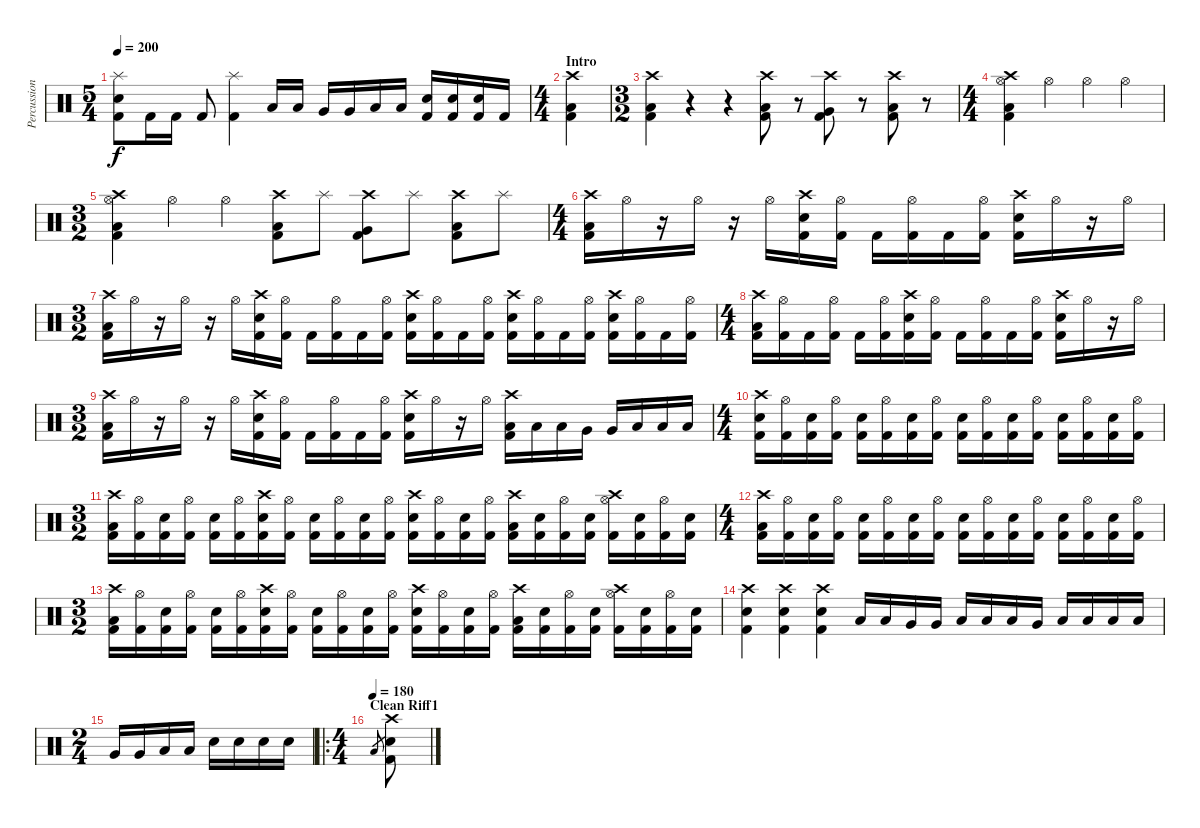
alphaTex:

\track ("Percussion" "Percussion") {instrument percussion}
\staff {score}
\articulation defaults
\ts (5 4)
\tempo 200
\clef neutral
\ks c
("Splash (hit)" "Kick (hit) 2" "Snare (hit) 2").8{dy f} "Kick (hit) 2".16 "Kick (hit) 2".16 "Kick (hit) 2".8 ("Splash (hit)" "Kick (hit) 2").4 "Low Tom (hit)".16 "Low Tom (hit)".16 "Very Low Tom (hit)".16 "Very Low Tom (hit)".16 "Low Floor Tom (hit)".16 "Low Floor Tom (hit)".16 ("Kick (hit) 2" "Electric Snare (hit)").16 ("Kick (hit) 2" "Snare (hit) 2").16 ("Kick (hit) 2" "Snare (hit) 2").16 "Kick (hit) 2".16 |
\ts (4 4)
\section ("" "Intro")
("Low Tom (hit)" "Kick (hit) 2" "Crash high (hit)").4 |
\ts (3 2)
("Low Tom (hit)" "Kick (hit) 2" "Crash high (hit)").4 r.4 r.4 ("Low Tom (hit)" "Kick (hit) 2" "Crash high (hit)").8 r.8 ("Very Low Tom (hit)" "Kick (hit) 2" "Crash high (hit)").8 r.8 ("Low Tom (hit)" "Kick (hit) 2" "Crash high (hit)").8 r.8 |
\ts (4 4)
("Hi-Hat (open)" "Low Tom (hit)" "Kick (hit) 2" "Crash high (hit)").4 "Hi-Hat (open)".4 "Hi-Hat (open)".4 "Hi-Hat (open)".4 |
\ts (3 2)
("Hi-Hat (open)" "Low Tom (hit)" "Kick (hit) 2" "Crash high (hit)").4 "Hi-Hat (open)".4 "Hi-Hat (open)".4 ("Low Tom (hit)" "Kick (hit) 2" "Crash high (hit)").8 "Splash (hit)".8 ("Very Low Tom (hit)" "Kick (hit) 2" "Crash high (hit)").8 "Splash (hit)".8 ("Low Tom (hit)" "Kick (hit) 2" "Crash high (hit)").8 "Splash (hit)".8 |
\ts (4 4)
("Low Tom (hit)" "Kick (hit) 2" "Crash high (hit)").16 "Hi-Hat (open)".16 r.16 "Hi-Hat (open)".16 r.16 "Hi-Hat (open)".16 ("Snare (hit) 2" "Kick (hit) 2" "Crash high (hit)").16 ("Hi-Hat (open)" "Kick (hit) 2").16 "Kick (hit) 2".16 ("Hi-Hat (open)" "Kick (hit) 2").16 "Kick (hit) 2".16 ("Hi-Hat (open)" "Kick (hit) 2").16 ("Snare (hit) 2" "Kick (hit) 2" "Crash high (hit)").16 "Hi-Hat (open)".16 r.16 "Hi-Hat (open)".16 |
\ts (3 2)
("Low Tom (hit)" "Kick (hit) 2" "Crash high (hit)").16 "Hi-Hat (open)".16 r.16 "Hi-Hat (open)".16 r.16 "Hi-Hat (open)".16 ("Snare (hit) 2" "Kick (hit) 2" "Crash high (hit)").16 ("Hi-Hat (open)" "Kick (hit) 2").16 "Kick (hit) 2".16 ("Hi-Hat (open)" "Kick (hit) 2").16 "Kick (hit) 2".16 ("Hi-Hat (open)" "Kick (hit) 2").16 ("Snare (hit) 2" "Kick (hit) 2" "Crash high (hit)").16 ("Hi-Hat (open)" "Kick (hit) 2").16 "Kick (hit) 2".16 ("Hi-Hat (open)" "Kick (hit) 2").16 ("Snare (hit) 2" "Kick (hit) 2" "Crash high (hit)").16 ("Hi-Hat (open)" "Kick (hit) 2").16 "Kick (hit) 2".16 ("Hi-Hat (open)" "Kick (hit) 2").16 ("Snare (hit) 2" "Kick (hit) 2" "Crash high (hit)").16 ("Hi-Hat (open)" "Kick (hit) 2").16 "Kick (hit) 2".16 ("Hi-Hat (open)" "Kick (hit) 2").16 |
\ts (4 4)
("Low Tom (hit)" "Kick (hit) 2" "Crash high (hit)").16 ("Hi-Hat (open)" "Kick (hit) 2").16 "Kick (hit) 2".16 ("Hi-Hat (open)" "Kick (hit) 2").16 "Kick (hit) 2".16 ("Hi-Hat (open)" "Kick (hit) 2").16 ("Snare (hit) 2" "Kick (hit) 2" "Crash high (hit)").16 ("Hi-Hat (open)" "Kick (hit) 2").16 "Kick (hit) 2".16 ("Hi-Hat (open)" "Kick (hit) 2").16 "Kick (hit) 2".16 ("Hi-Hat (open)" "Kick (hit) 2").16 ("Snare (hit) 2" "Kick (hit) 2" "Crash high (hit)").16 "Hi-Hat (open)".16 r.16 "Hi-Hat (open)".16 |
\ts (3 2)
("Low Tom (hit)" "Kick (hit) 2" "Crash high (hit)").16 "Hi-Hat (open)".16 r.16 "Hi-Hat (open)".16 r.16 "Hi-Hat (open)".16 ("Snare (hit) 2" "Kick (hit) 2" "Crash high (hit)").16 ("Hi-Hat (open)" "Kick (hit) 2").16 "Kick (hit) 2".16 ("Hi-Hat (open)" "Kick (hit) 2").16 "Kick (hit) 2".16 ("Hi-Hat (open)" "Kick (hit) 2").16 ("Snare (hit) 2" "Kick (hit) 2" "Crash high (hit)").16 "Hi-Hat (open)".16 r.16 "Hi-Hat (open)".16 ("Low Tom (hit)" "Kick (hit) 2" "Crash high (hit)").16 "Low Tom (hit)".16 "Low Tom (hit)".16 "Very Low Tom (hit)".16 "Very Low Tom (hit)".16 "Low Floor Tom (hit)".16 "Low Floor Tom (hit)".16 "Low Floor Tom (hit)".16 |
\ts (4 4)
("Snare (hit) 2" "Kick (hit) 2" "Crash high (hit)").16 ("Hi-Hat (open)" "Kick (hit) 2").16 ("Snare (hit) 2" "Kick (hit) 2").16 ("Hi-Hat (open)" "Kick (hit) 2").16 ("Snare (hit) 2" "Kick (hit) 2").16 ("Hi-Hat (open)" "Kick (hit) 2").16 ("Snare (hit) 2" "Kick (hit) 2").16 ("Hi-Hat (open)" "Kick (hit) 2").16 ("Snare (hit) 2" "Kick (hit) 2").16 ("Hi-Hat (open)" "Kick (hit) 2").16 ("Snare (hit) 2" "Kick (hit) 2").16 ("Hi-Hat (open)" "Kick (hit) 2").16 ("Snare (hit) 2" "Kick (hit) 2").16 ("Hi-Hat (open)" "Kick (hit) 2").16 ("Snare (hit) 2" "Kick (hit) 2").16 ("Hi-Hat (open)" "Kick (hit) 2").16 |
\ts (3 2)
("Low Tom (hit)" "Kick (hit) 2" "Crash high (hit)").16 ("Hi-Hat (open)" "Kick (hit) 2").16 ("Snare (hit) 2" "Kick (hit) 2").16 ("Hi-Hat (open)" "Kick (hit) 2").16 ("Snare (hit) 2" "Kick (hit) 2").16 ("Hi-Hat (open)" "Kick (hit) 2").16 ("Snare (hit) 2" "Kick (hit) 2" "Crash high (hit)").16 ("Hi-Hat (open)" "Kick (hit) 2").16 ("Snare (hit) 2" "Kick (hit) 2").16 ("Hi-Hat (open)" "Kick (hit) 2").16 ("Snare (hit) 2" "Kick (hit) 2").16 ("Hi-Hat (open)" "Kick (hit) 2").16 ("Snare (hit) 2" "Kick (hit) 2" "Crash high (hit)").16 ("Hi-Hat (open)" "Kick (hit) 2").16 ("Snare (hit) 2" "Kick (hit) 2").16 ("Hi-Hat (open)" "Kick (hit) 2").16 ("Low Tom (hit)" "Kick (hit) 2" "Crash high (hit)").16 ("Snare (hit) 2" "Kick (hit) 2").16 ("Hi-Hat (open)" "Kick (hit) 2").16 ("Snare (hit) 2" "Kick (hit) 2").16 ("Hi-Hat (open)" "Kick (hit) 2" "Crash high (hit)").16 ("Snare (hit) 2" "Kick (hit) 2").16 ("Hi-Hat (open)" "Kick (hit) 2").16 ("Snare (hit) 2" "Kick (hit) 2").16 |
\ts (4 4)
("Low Tom (hit)" "Kick (hit) 2" "Crash high (hit)").16 ("Hi-Hat (open)" "Kick (hit) 2").16 ("Snare (hit) 2" "Kick (hit) 2").16 ("Hi-Hat (open)" "Kick (hit) 2").16 ("Snare (hit) 2" "Kick (hit) 2").16 ("Hi-Hat (open)" "Kick (hit) 2").16 ("Snare (hit) 2" "Kick (hit) 2").16 ("Hi-Hat (open)" "Kick (hit) 2").16 ("Snare (hit) 2" "Kick (hit) 2").16 ("Hi-Hat (open)" "Kick (hit) 2").16 ("Snare (hit) 2" "Kick (hit) 2").16 ("Hi-Hat (open)" "Kick (hit) 2").16 ("Snare (hit) 2" "Kick (hit) 2").16 ("Hi-Hat (open)" "Kick (hit) 2").16 ("Snare (hit) 2" "Kick (hit) 2").16 ("Hi-Hat (open)" "Kick (hit) 2").16 |
\ts (3 2)
("Low Tom (hit)" "Kick (hit) 2" "Crash high (hit)").16 ("Hi-Hat (open)" "Kick (hit) 2").16 ("Snare (hit) 2" "Kick (hit) 2").16 ("Hi-Hat (open)" "Kick (hit) 2").16 ("Snare (hit) 2" "Kick (hit) 2").16 ("Hi-Hat (open)" "Kick (hit) 2").16 ("Snare (hit) 2" "Kick (hit) 2" "Crash high (hit)").16 ("Hi-Hat (open)" "Kick (hit) 2").16 ("Snare (hit) 2" "Kick (hit) 2").16 ("Hi-Hat (open)" "Kick (hit) 2").16 ("Snare (hit) 2" "Kick (hit) 2").16 ("Hi-Hat (open)" "Kick (hit) 2").16 ("Snare (hit) 2" "Kick (hit) 2" "Crash high (hit)").16 ("Hi-Hat (open)" "Kick (hit) 2").16 ("Snare (hit) 2" "Kick (hit) 2").16 ("Hi-Hat (open)" "Kick (hit) 2").16 ("Low Tom (hit)" "Kick (hit) 2" "Crash high (hit)").16 ("Snare (hit) 2" "Kick (hit) 2").16 ("Hi-Hat (open)" "Kick (hit) 2").16 ("Snare (hit) 2" "Kick (hit) 2").16 ("Hi-Hat (open)" "Kick (hit) 2" "Crash high (hit)").16 ("Snare (hit) 2" "Kick (hit) 2").16 ("Hi-Hat (open)" "Kick (hit) 2").16 ("Snare (hit) 2" "Kick (hit) 2").16 |
("Kick (hit) 2" "Snare (hit) 2" "Crash high (hit)").4 ("Kick (hit) 2" "Snare (hit) 2" "Crash high (hit)").4 ("Kick (hit) 2" "Snare (hit) 2" "Crash high (hit)").4 "Low Tom (hit)".16 "Low Tom (hit)".16 "Very Low Tom (hit)".16 "Very Low Tom (hit)".16 "Low Floor Tom (hit)".16 "Low Floor Tom (hit)".16 "Low Tom (hit)".16 "Very Low Tom (hit)".16 "Low Floor Tom (hit)".16 "Low Floor Tom (hit)".16 "Low Floor Tom (hit)".16 "Low Tom (hit)".16 |
\ts (2 4)
"Very Low Tom (hit)".16 "Very Low Tom (hit)".16 "Low Floor Tom (hit)".16 "Low Floor Tom (hit)".16 "Electric Snare (hit)".16 "Electric Snare (hit)".16 "Snare (hit) 2".16 "Snare (hit) 2".16 |
\ro
\ts (4 4)
\section ("" "Clean Riff1")
\tempo (180)
"Low Tom (hit)".8{gr} ("Crash high (hit)" "Snare (hit) 2" "Kick (hit) 2").8
